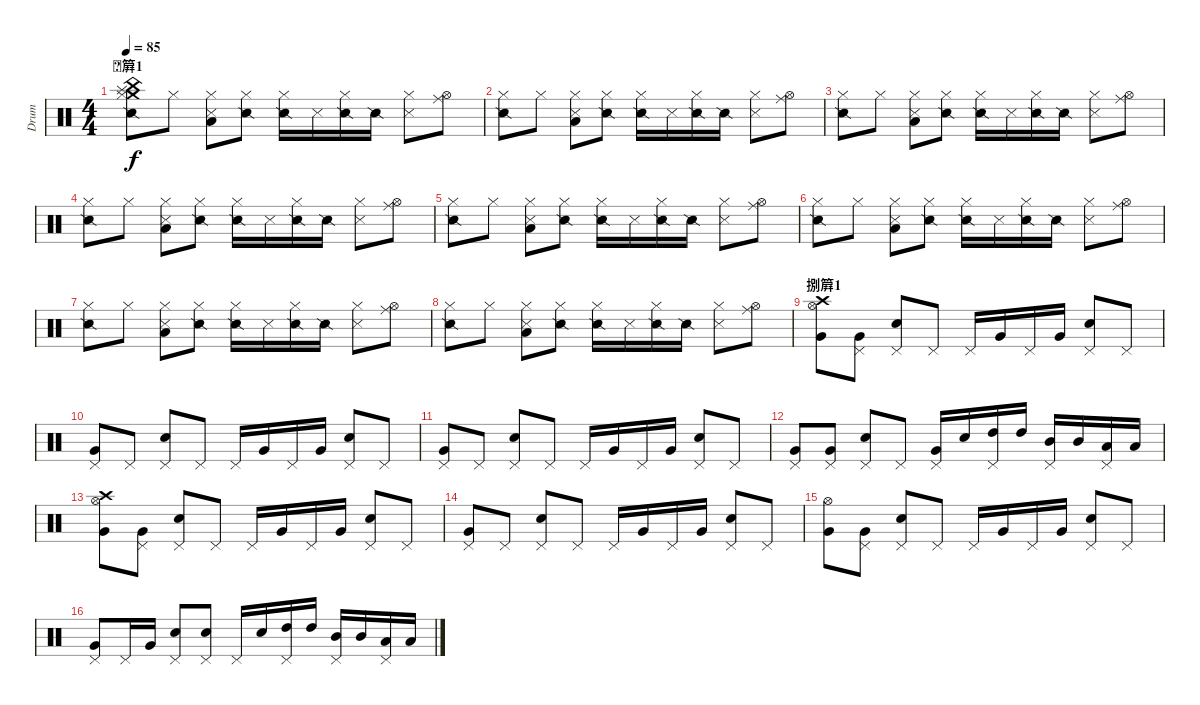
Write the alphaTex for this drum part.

\track ("Drum" "Drum") {instrument percussion}
\staff {score}
\articulation defaults
\ts (4 4)
\section ("" "簈1")
\tempo 85
\clef neutral
\ks c
("Crash medium (hit)" "Splash (hit)" "China (hit)" "Snare (side stick) 2" "Hi-Hat (closed)").8{dy f volume 16} "Hi-Hat (closed)".8 ("Metronome (hit)" "Low Floor Tom (hit)" "Hi-Hat (closed)").8 ("Snare (side stick) 2" "Hi-Hat (closed)").8 ("Snare (side stick) 2" "Hi-Hat (closed)").16 "Metronome (hit)".16 ("Snare (side stick) 2" "Hi-Hat (closed)").16 "Snare (side stick) 2".16 ("Metronome (hit)" "Hi-Hat (closed)").8 ("Ride (middle)" "Hi-Hat (open)").8 |
("Snare (side stick) 2" "Hi-Hat (closed)").8 "Hi-Hat (closed)".8 ("Metronome (hit)" "Low Floor Tom (hit)" "Hi-Hat (closed)").8 ("Snare (side stick) 2" "Hi-Hat (closed)").8 ("Snare (side stick) 2" "Hi-Hat (closed)").16 "Metronome (hit)".16 ("Snare (side stick) 2" "Hi-Hat (closed)").16 "Snare (side stick) 2".16 ("Metronome (hit)" "Hi-Hat (closed)").8 ("Ride (middle)" "Hi-Hat (open)").8 |
("Snare (side stick) 2" "Hi-Hat (closed)").8 "Hi-Hat (closed)".8 ("Metronome (hit)" "Low Floor Tom (hit)" "Hi-Hat (closed)").8 ("Snare (side stick) 2" "Hi-Hat (closed)").8 ("Snare (side stick) 2" "Hi-Hat (closed)").16 "Metronome (hit)".16 ("Snare (side stick) 2" "Hi-Hat (closed)").16 "Snare (side stick) 2".16 ("Metronome (hit)" "Hi-Hat (closed)").8 ("Ride (middle)" "Hi-Hat (open)").8 |
("Snare (side stick) 2" "Hi-Hat (closed)").8 "Hi-Hat (closed)".8 ("Metronome (hit)" "Low Floor Tom (hit)" "Hi-Hat (closed)").8 ("Snare (side stick) 2" "Hi-Hat (closed)").8 ("Snare (side stick) 2" "Hi-Hat (closed)").16 "Metronome (hit)".16 ("Snare (side stick) 2" "Hi-Hat (closed)").16 "Snare (side stick) 2".16 ("Metronome (hit)" "Hi-Hat (closed)").8 ("Ride (middle)" "Hi-Hat (open)").8 |
("Snare (side stick) 2" "Hi-Hat (closed)").8 "Hi-Hat (closed)".8 ("Metronome (hit)" "Low Floor Tom (hit)" "Hi-Hat (closed)").8 ("Snare (side stick) 2" "Hi-Hat (closed)").8 ("Snare (side stick) 2" "Hi-Hat (closed)").16 "Metronome (hit)".16 ("Snare (side stick) 2" "Hi-Hat (closed)").16 "Snare (side stick) 2".16 ("Metronome (hit)" "Hi-Hat (closed)").8 ("Ride (middle)" "Hi-Hat (open)").8 |
("Snare (side stick) 2" "Hi-Hat (closed)").8 "Hi-Hat (closed)".8 ("Metronome (hit)" "Low Floor Tom (hit)" "Hi-Hat (closed)").8 ("Snare (side stick) 2" "Hi-Hat (closed)").8 ("Snare (side stick) 2" "Hi-Hat (closed)").16 "Metronome (hit)".16 ("Snare (side stick) 2" "Hi-Hat (closed)").16 "Snare (side stick) 2".16 ("Metronome (hit)" "Hi-Hat (closed)").8 ("Ride (middle)" "Hi-Hat (open)").8 |
("Snare (side stick) 2" "Hi-Hat (closed)").8 "Hi-Hat (closed)".8 ("Metronome (hit)" "Low Floor Tom (hit)" "Hi-Hat (closed)").8 ("Snare (side stick) 2" "Hi-Hat (closed)").8 ("Snare (side stick) 2" "Hi-Hat (closed)").16 "Metronome (hit)".16 ("Snare (side stick) 2" "Hi-Hat (closed)").16 "Snare (side stick) 2".16 ("Metronome (hit)" "Hi-Hat (closed)").8 ("Ride (middle)" "Hi-Hat (open)").8 |
("Snare (side stick) 2" "Hi-Hat (closed)").8 "Hi-Hat (closed)".8 ("Metronome (hit)" "Low Floor Tom (hit)" "Hi-Hat (closed)").8 ("Snare (side stick) 2" "Hi-Hat (closed)").8 ("Snare (side stick) 2" "Hi-Hat (closed)").16 "Metronome (hit)".16 ("Snare (side stick) 2" "Hi-Hat (closed)").16 "Snare (side stick) 2".16 ("Metronome (hit)" "Hi-Hat (closed)").8 ("Ride (middle)" "Hi-Hat (open)").8 |
\section ("" "捌簈1")
("Crash high (hit)" "Very Low Tom (hit)" "Hi-Hat (open)").8 ("Very Low Tom (hit)" "Pedal Hi-Hat (hit)").8 ("Snare (hit) 2" "Pedal Hi-Hat (hit)").8 "Pedal Hi-Hat (hit)".8 "Pedal Hi-Hat (hit)".16 "Very Low Tom (hit)".16 "Pedal Hi-Hat (hit)".16 "Very Low Tom (hit)".16 ("Snare (hit) 2" "Pedal Hi-Hat (hit)").8 "Pedal Hi-Hat (hit)".8 |
("Very Low Tom (hit)" "Pedal Hi-Hat (hit)").8 "Pedal Hi-Hat (hit)".8 ("Snare (hit) 2" "Pedal Hi-Hat (hit)").8 "Pedal Hi-Hat (hit)".8 "Pedal Hi-Hat (hit)".16 "Very Low Tom (hit)".16 "Pedal Hi-Hat (hit)".16 "Very Low Tom (hit)".16 ("Snare (hit) 2" "Pedal Hi-Hat (hit)").8 "Pedal Hi-Hat (hit)".8 |
("Very Low Tom (hit)" "Pedal Hi-Hat (hit)").8 "Pedal Hi-Hat (hit)".8 ("Snare (hit) 2" "Pedal Hi-Hat (hit)").8 "Pedal Hi-Hat (hit)".8 "Pedal Hi-Hat (hit)".16 "Very Low Tom (hit)".16 "Pedal Hi-Hat (hit)".16 "Very Low Tom (hit)".16 ("Snare (hit) 2" "Pedal Hi-Hat (hit)").8 "Pedal Hi-Hat (hit)".8 |
("Very Low Tom (hit)" "Pedal Hi-Hat (hit)").8 ("Very Low Tom (hit)" "Pedal Hi-Hat (hit)").8 ("Snare (hit) 2" "Pedal Hi-Hat (hit)").8 "Pedal Hi-Hat (hit)".8 ("Very Low Tom (hit)" "Pedal Hi-Hat (hit)").16 "Snare (hit) 2".16 ("High Tom (hit)" "Pedal Hi-Hat (hit)").16 "High Tom (hit)".16 ("Mid Tom (hit)" "Pedal Hi-Hat (hit)").16 "Mid Tom (hit)".16 ("Low Tom (hit)" "Pedal Hi-Hat (hit)").16 "Low Tom (hit)".16 |
("Crash high (hit)" "Very Low Tom (hit)" "Hi-Hat (open)").8 ("Very Low Tom (hit)" "Pedal Hi-Hat (hit)").8 ("Snare (hit) 2" "Pedal Hi-Hat (hit)").8 "Pedal Hi-Hat (hit)".8 "Pedal Hi-Hat (hit)".16 "Very Low Tom (hit)".16 "Pedal Hi-Hat (hit)".16 "Very Low Tom (hit)".16 ("Snare (hit) 2" "Pedal Hi-Hat (hit)").8 "Pedal Hi-Hat (hit)".8 |
("Very Low Tom (hit)" "Pedal Hi-Hat (hit)").8 "Pedal Hi-Hat (hit)".8 ("Snare (hit) 2" "Pedal Hi-Hat (hit)").8 "Pedal Hi-Hat (hit)".8 "Pedal Hi-Hat (hit)".16 "Very Low Tom (hit)".16 "Pedal Hi-Hat (hit)".16 "Very Low Tom (hit)".16 ("Snare (hit) 2" "Pedal Hi-Hat (hit)").8 "Pedal Hi-Hat (hit)".8 |
("Very Low Tom (hit)" "Hi-Hat (open)").8 ("Very Low Tom (hit)" "Pedal Hi-Hat (hit)").8 ("Snare (hit) 2" "Pedal Hi-Hat (hit)").8 "Pedal Hi-Hat (hit)".8 "Pedal Hi-Hat (hit)".16 "Very Low Tom (hit)".16 "Pedal Hi-Hat (hit)".16 "Very Low Tom (hit)".16 ("Snare (hit) 2" "Pedal Hi-Hat (hit)").8 "Pedal Hi-Hat (hit)".8 |
("Very Low Tom (hit)" "Pedal Hi-Hat (hit)").8 "Pedal Hi-Hat (hit)".16 "Very Low Tom (hit)".16 ("Snare (hit) 2" "Pedal Hi-Hat (hit)").8 ("Snare (hit) 2" "Pedal Hi-Hat (hit)").8 "Pedal Hi-Hat (hit)".16 "Snare (hit) 2".16 ("High Tom (hit)" "Pedal Hi-Hat (hit)").16 "High Tom (hit)".16 ("Mid Tom (hit)" "Pedal Hi-Hat (hit)").16 "Mid Tom (hit)".16 ("Low Tom (hit)" "Pedal Hi-Hat (hit)").16 "Low Tom (hit)".16
